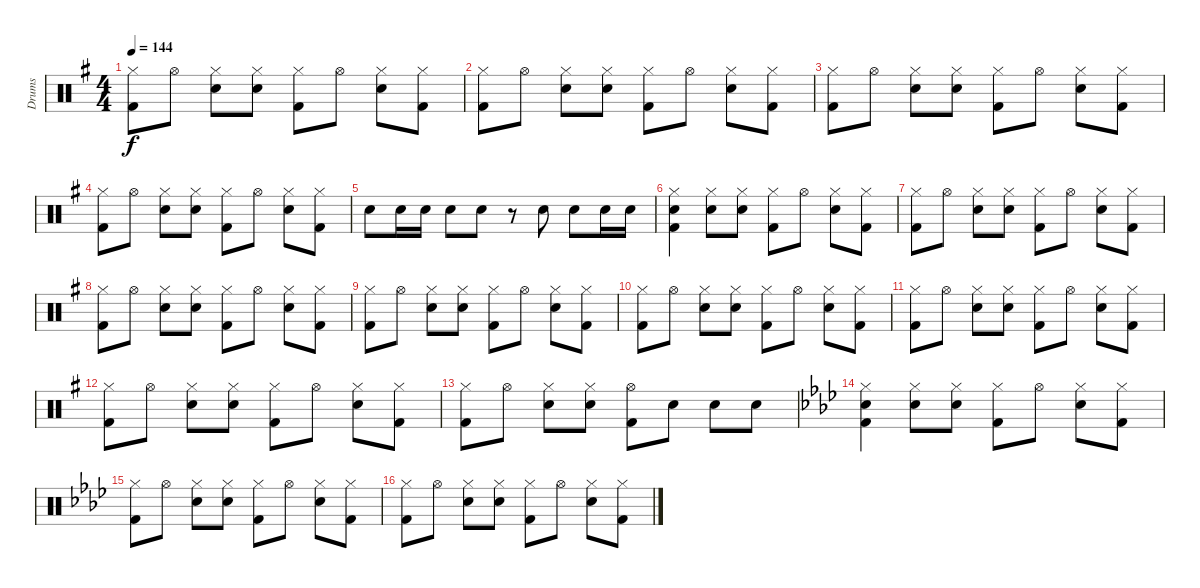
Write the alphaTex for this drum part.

\track ("Drums" "Drums") {instrument percussion}
\staff {score}
\articulation defaults
\ts (4 4)
\tempo 144
\clef neutral
\ks g
("Hi-Hat (closed)" "Kick (hit) 2").8{dy f} "Hi-Hat (open)".8 ("Hi-Hat (closed)" "Snare (hit) 2").8 ("Hi-Hat (closed)" "Snare (hit) 2").8 ("Hi-Hat (closed)" "Kick (hit) 2").8 "Hi-Hat (open)".8 ("Hi-Hat (closed)" "Snare (hit) 2").8 ("Hi-Hat (closed)" "Kick (hit) 2").8 |
("Hi-Hat (closed)" "Kick (hit) 2").8 "Hi-Hat (open)".8 ("Hi-Hat (closed)" "Snare (hit) 2").8 ("Hi-Hat (closed)" "Snare (hit) 2").8 ("Hi-Hat (closed)" "Kick (hit) 2").8 "Hi-Hat (open)".8 ("Hi-Hat (closed)" "Snare (hit) 2").8 ("Hi-Hat (closed)" "Kick (hit) 2").8 |
("Hi-Hat (closed)" "Kick (hit) 2").8 "Hi-Hat (open)".8 ("Hi-Hat (closed)" "Snare (hit) 2").8 ("Hi-Hat (closed)" "Snare (hit) 2").8 ("Hi-Hat (closed)" "Kick (hit) 2").8 "Hi-Hat (open)".8 ("Hi-Hat (closed)" "Snare (hit) 2").8 ("Hi-Hat (closed)" "Kick (hit) 2").8 |
("Hi-Hat (closed)" "Kick (hit) 2").8 "Hi-Hat (open)".8 ("Hi-Hat (closed)" "Snare (hit) 2").8 ("Hi-Hat (closed)" "Snare (hit) 2").8 ("Hi-Hat (closed)" "Kick (hit) 2").8 "Hi-Hat (open)".8 ("Hi-Hat (closed)" "Snare (hit) 2").8 ("Hi-Hat (closed)" "Kick (hit) 2").8 |
"Snare (hit) 2".8 "Snare (hit) 2".16 "Snare (hit) 2".16 "Snare (hit) 2".8 "Snare (hit) 2".8 r.8 "Snare (hit) 2".8 "Snare (hit) 2".8 "Snare (hit) 2".16 "Snare (hit) 2".16 |
("Hi-Hat (closed)" "Snare (hit) 2" "Kick (hit) 2").4 ("Hi-Hat (closed)" "Snare (hit) 2").8 ("Hi-Hat (closed)" "Snare (hit) 2").8 ("Hi-Hat (closed)" "Kick (hit) 2").8 "Hi-Hat (open)".8 ("Hi-Hat (closed)" "Snare (hit) 2").8 ("Hi-Hat (closed)" "Kick (hit) 2").8 |
("Hi-Hat (closed)" "Kick (hit) 2").8 "Hi-Hat (open)".8 ("Hi-Hat (closed)" "Snare (hit) 2").8 ("Hi-Hat (closed)" "Snare (hit) 2").8 ("Hi-Hat (closed)" "Kick (hit) 2").8 "Hi-Hat (open)".8 ("Hi-Hat (closed)" "Snare (hit) 2").8 ("Hi-Hat (closed)" "Kick (hit) 2").8 |
("Hi-Hat (closed)" "Kick (hit) 2").8 "Hi-Hat (open)".8 ("Hi-Hat (closed)" "Snare (hit) 2").8 ("Hi-Hat (closed)" "Snare (hit) 2").8 ("Hi-Hat (closed)" "Kick (hit) 2").8 "Hi-Hat (open)".8 ("Hi-Hat (closed)" "Snare (hit) 2").8 ("Hi-Hat (closed)" "Kick (hit) 2").8 |
("Hi-Hat (closed)" "Kick (hit) 2").8 "Hi-Hat (open)".8 ("Hi-Hat (closed)" "Snare (hit) 2").8 ("Hi-Hat (closed)" "Snare (hit) 2").8 ("Hi-Hat (closed)" "Kick (hit) 2").8 "Hi-Hat (open)".8 ("Hi-Hat (closed)" "Snare (hit) 2").8 ("Hi-Hat (closed)" "Kick (hit) 2").8 |
("Hi-Hat (closed)" "Kick (hit) 2").8 "Hi-Hat (open)".8 ("Hi-Hat (closed)" "Snare (hit) 2").8 ("Hi-Hat (closed)" "Snare (hit) 2").8 ("Hi-Hat (closed)" "Kick (hit) 2").8 "Hi-Hat (open)".8 ("Hi-Hat (closed)" "Snare (hit) 2").8 ("Hi-Hat (closed)" "Kick (hit) 2").8 |
("Hi-Hat (closed)" "Kick (hit) 2").8 "Hi-Hat (open)".8 ("Hi-Hat (closed)" "Snare (hit) 2").8 ("Hi-Hat (closed)" "Snare (hit) 2").8 ("Hi-Hat (closed)" "Kick (hit) 2").8 "Hi-Hat (open)".8 ("Hi-Hat (closed)" "Snare (hit) 2").8 ("Hi-Hat (closed)" "Kick (hit) 2").8 |
("Hi-Hat (closed)" "Kick (hit) 2").8 "Hi-Hat (open)".8 ("Hi-Hat (closed)" "Snare (hit) 2").8 ("Hi-Hat (closed)" "Snare (hit) 2").8 ("Hi-Hat (closed)" "Kick (hit) 2").8 "Hi-Hat (open)".8 ("Hi-Hat (closed)" "Snare (hit) 2").8 ("Hi-Hat (closed)" "Kick (hit) 2").8 |
("Hi-Hat (closed)" "Kick (hit) 2").8 "Hi-Hat (open)".8 ("Hi-Hat (closed)" "Snare (hit) 2").8 ("Hi-Hat (closed)" "Snare (hit) 2").8 ("Hi-Hat (open)" "Kick (hit) 2").8 "Snare (hit) 2".8 "Snare (hit) 2".8 "Snare (hit) 2".8 |
\ks ab
("Hi-Hat (closed)" "Snare (hit) 2" "Kick (hit) 2").4 ("Hi-Hat (closed)" "Snare (hit) 2").8 ("Hi-Hat (closed)" "Snare (hit) 2").8 ("Hi-Hat (closed)" "Kick (hit) 2").8 "Hi-Hat (open)".8 ("Hi-Hat (closed)" "Snare (hit) 2").8 ("Hi-Hat (closed)" "Kick (hit) 2").8 |
("Hi-Hat (closed)" "Kick (hit) 2").8 "Hi-Hat (open)".8 ("Hi-Hat (closed)" "Snare (hit) 2").8 ("Hi-Hat (closed)" "Snare (hit) 2").8 ("Hi-Hat (closed)" "Kick (hit) 2").8 "Hi-Hat (open)".8 ("Hi-Hat (closed)" "Snare (hit) 2").8 ("Hi-Hat (closed)" "Kick (hit) 2").8 |
("Hi-Hat (closed)" "Kick (hit) 2").8 "Hi-Hat (open)".8 ("Hi-Hat (closed)" "Snare (hit) 2").8 ("Hi-Hat (closed)" "Snare (hit) 2").8 ("Hi-Hat (closed)" "Kick (hit) 2").8 "Hi-Hat (open)".8 ("Hi-Hat (closed)" "Snare (hit) 2").8 ("Hi-Hat (closed)" "Kick (hit) 2").8
